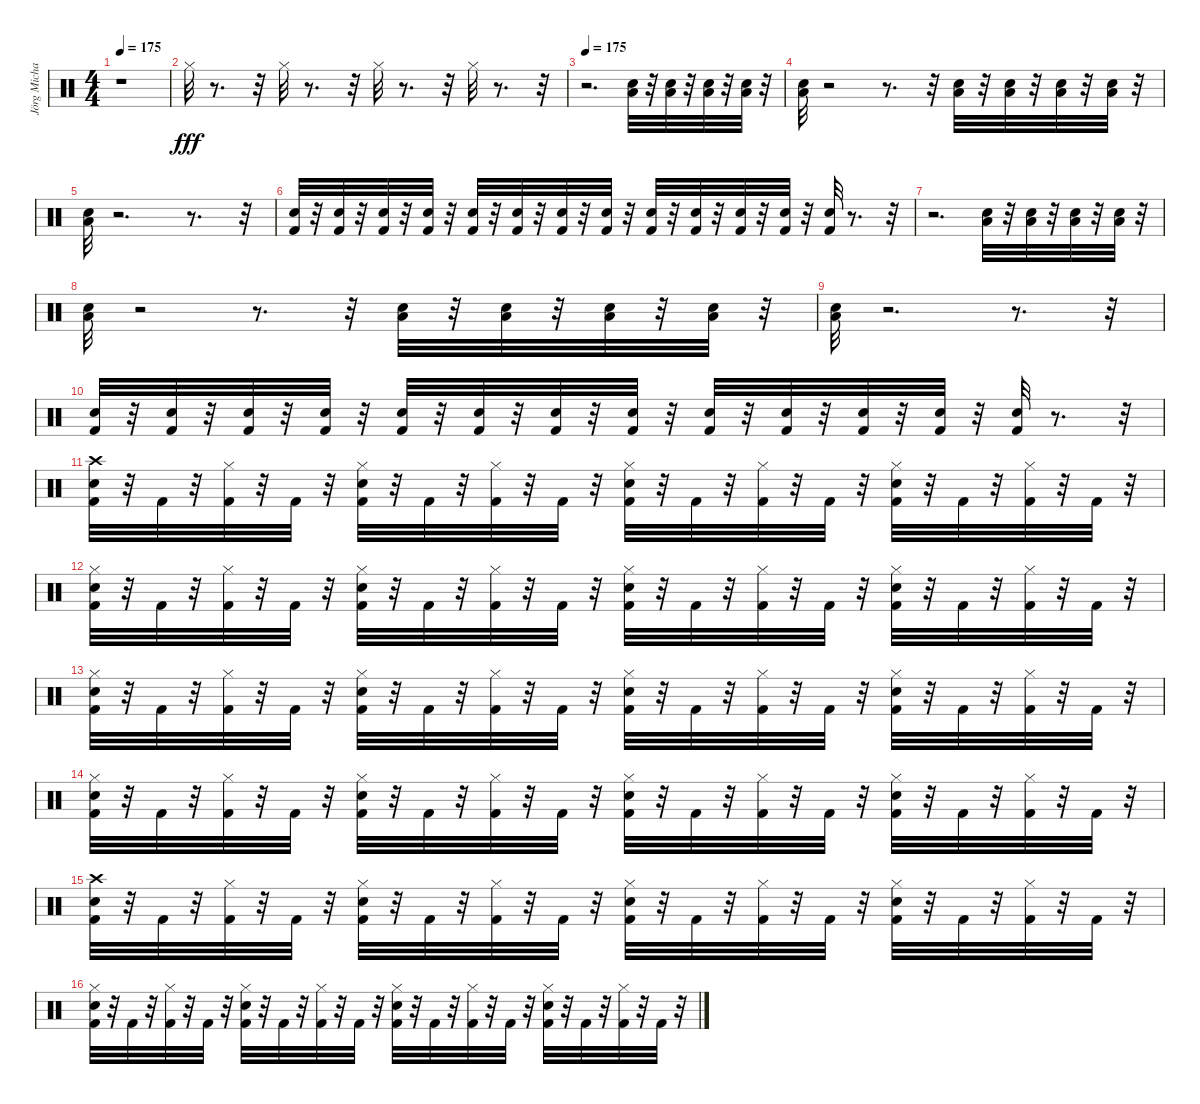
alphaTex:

\track ("Jörg Michael " "Jörg Micha") {instrument percussion}
\staff {score}
\articulation defaults
\ts (4 4)
\tempo 175
\clef neutral
\ks c
r.1{dy fff} |
"Hi-Hat (closed)".32 r.8{d} r.32 "Hi-Hat (closed)".32 r.8{d} r.32 "Hi-Hat (closed)".32 r.8{d} r.32 "Hi-Hat (closed)".32 r.8{d} r.32 |
\tempo 175
r.2{d} ("Low Floor Tom (hit)" "Snare (hit) 2").32 r.32 ("Low Floor Tom (hit)" "Snare (hit) 2").32 r.32 ("Low Floor Tom (hit)" "Snare (hit) 2").32 r.32 ("Low Floor Tom (hit)" "Snare (hit) 2").32 r.32 |
("Low Floor Tom (hit)" "Snare (hit) 2").32 r.2 r.8{d} r.32 ("Low Floor Tom (hit)" "Snare (hit) 2").32 r.32 ("Low Floor Tom (hit)" "Snare (hit) 2").32 r.32 ("Low Floor Tom (hit)" "Snare (hit) 2").32 r.32 ("Low Floor Tom (hit)" "Snare (hit) 2").32 r.32 |
("Low Floor Tom (hit)" "Snare (hit) 2").32 r.2{d} r.8{d} r.32 |
("Kick (hit) 2" "Snare (hit) 2").32 r.32 ("Kick (hit) 2" "Snare (hit) 2").32 r.32 ("Kick (hit) 2" "Snare (hit) 2").32 r.32 ("Kick (hit) 2" "Snare (hit) 2").32 r.32 ("Kick (hit) 2" "Snare (hit) 2").32 r.32 ("Kick (hit) 2" "Snare (hit) 2").32 r.32 ("Kick (hit) 2" "Snare (hit) 2").32 r.32 ("Kick (hit) 2" "Snare (hit) 2").32 r.32 ("Kick (hit) 2" "Electric Snare (hit)").32 r.32 ("Kick (hit) 2" "Electric Snare (hit)").32 r.32 ("Kick (hit) 2" "Electric Snare (hit)").32 r.32 ("Kick (hit) 2" "Electric Snare (hit)").32 r.32 ("Kick (hit) 2" "Electric Snare (hit)").32 r.8{d} r.32 |
r.2{d} ("Low Floor Tom (hit)" "Snare (hit) 2").32 r.32 ("Low Floor Tom (hit)" "Snare (hit) 2").32 r.32 ("Low Floor Tom (hit)" "Snare (hit) 2").32 r.32 ("Low Floor Tom (hit)" "Snare (hit) 2").32 r.32 |
("Low Floor Tom (hit)" "Snare (hit) 2").32 r.2 r.8{d} r.32 ("Low Floor Tom (hit)" "Snare (hit) 2").32 r.32 ("Low Floor Tom (hit)" "Snare (hit) 2").32 r.32 ("Low Floor Tom (hit)" "Snare (hit) 2").32 r.32 ("Low Floor Tom (hit)" "Snare (hit) 2").32 r.32 |
("Low Floor Tom (hit)" "Snare (hit) 2").32 r.2{d} r.8{d} r.32 |
("Kick (hit) 2" "Snare (hit) 2").32 r.32 ("Kick (hit) 2" "Snare (hit) 2").32 r.32 ("Kick (hit) 2" "Snare (hit) 2").32 r.32 ("Kick (hit) 2" "Snare (hit) 2").32 r.32 ("Kick (hit) 2" "Snare (hit) 2").32 r.32 ("Kick (hit) 2" "Snare (hit) 2").32 r.32 ("Kick (hit) 2" "Snare (hit) 2").32 r.32 ("Kick (hit) 2" "Snare (hit) 2").32 r.32 ("Kick (hit) 2" "Electric Snare (hit)").32 r.32 ("Kick (hit) 2" "Electric Snare (hit)").32 r.32 ("Kick (hit) 2" "Electric Snare (hit)").32 r.32 ("Kick (hit) 2" "Electric Snare (hit)").32 r.32 ("Kick (hit) 2" "Electric Snare (hit)").32 r.8{d} r.32 |
("Crash high (hit)" "Snare (hit) 2" "Kick (hit) 2").32 r.32 "Kick (hit) 2".32 r.32 ("Hi-Hat (closed)" "Kick (hit) 2").32 r.32 "Kick (hit) 2".32 r.32 ("Hi-Hat (closed)" "Snare (hit) 2" "Kick (hit) 2").32 r.32 "Kick (hit) 2".32 r.32 ("Hi-Hat (closed)" "Kick (hit) 2").32 r.32 "Kick (hit) 2".32 r.32 ("Hi-Hat (closed)" "Snare (hit) 2" "Kick (hit) 2").32 r.32 "Kick (hit) 2".32 r.32 ("Hi-Hat (closed)" "Kick (hit) 2").32 r.32 "Kick (hit) 2".32 r.32 ("Hi-Hat (closed)" "Snare (hit) 2" "Kick (hit) 2").32 r.32 "Kick (hit) 2".32 r.32 ("Hi-Hat (closed)" "Kick (hit) 2").32 r.32 "Kick (hit) 2".32 r.32 |
("Hi-Hat (closed)" "Snare (hit) 2" "Kick (hit) 2").32 r.32 "Kick (hit) 2".32 r.32 ("Hi-Hat (closed)" "Kick (hit) 2").32 r.32 "Kick (hit) 2".32 r.32 ("Hi-Hat (closed)" "Snare (hit) 2" "Kick (hit) 2").32 r.32 "Kick (hit) 2".32 r.32 ("Hi-Hat (closed)" "Kick (hit) 2").32 r.32 "Kick (hit) 2".32 r.32 ("Hi-Hat (closed)" "Snare (hit) 2" "Kick (hit) 2").32 r.32 "Kick (hit) 2".32 r.32 ("Hi-Hat (closed)" "Kick (hit) 2").32 r.32 "Kick (hit) 2".32 r.32 ("Hi-Hat (closed)" "Snare (hit) 2" "Kick (hit) 2").32 r.32 "Kick (hit) 2".32 r.32 ("Hi-Hat (closed)" "Kick (hit) 2").32 r.32 "Kick (hit) 2".32 r.32 |
("Hi-Hat (closed)" "Snare (hit) 2" "Kick (hit) 2").32 r.32 "Kick (hit) 2".32 r.32 ("Hi-Hat (closed)" "Kick (hit) 2").32 r.32 "Kick (hit) 2".32 r.32 ("Hi-Hat (closed)" "Snare (hit) 2" "Kick (hit) 2").32 r.32 "Kick (hit) 2".32 r.32 ("Hi-Hat (closed)" "Kick (hit) 2").32 r.32 "Kick (hit) 2".32 r.32 ("Hi-Hat (closed)" "Snare (hit) 2" "Kick (hit) 2").32 r.32 "Kick (hit) 2".32 r.32 ("Hi-Hat (closed)" "Kick (hit) 2").32 r.32 "Kick (hit) 2".32 r.32 ("Hi-Hat (closed)" "Snare (hit) 2" "Kick (hit) 2").32 r.32 "Kick (hit) 2".32 r.32 ("Hi-Hat (closed)" "Kick (hit) 2").32 r.32 "Kick (hit) 2".32 r.32 |
("Hi-Hat (closed)" "Snare (hit) 2" "Kick (hit) 2").32 r.32 "Kick (hit) 2".32 r.32 ("Hi-Hat (closed)" "Kick (hit) 2").32 r.32 "Kick (hit) 2".32 r.32 ("Hi-Hat (closed)" "Snare (hit) 2" "Kick (hit) 2").32 r.32 "Kick (hit) 2".32 r.32 ("Hi-Hat (closed)" "Kick (hit) 2").32 r.32 "Kick (hit) 2".32 r.32 ("Hi-Hat (closed)" "Snare (hit) 2" "Kick (hit) 2").32 r.32 "Kick (hit) 2".32 r.32 ("Hi-Hat (closed)" "Kick (hit) 2").32 r.32 "Kick (hit) 2".32 r.32 ("Hi-Hat (closed)" "Snare (hit) 2" "Kick (hit) 2").32 r.32 "Kick (hit) 2".32 r.32 ("Hi-Hat (closed)" "Kick (hit) 2").32 r.32 "Kick (hit) 2".32 r.32 |
("Crash high (hit)" "Snare (hit) 2" "Kick (hit) 2").32 r.32 "Kick (hit) 2".32 r.32 ("Hi-Hat (closed)" "Kick (hit) 2").32 r.32 "Kick (hit) 2".32 r.32 ("Hi-Hat (closed)" "Snare (hit) 2" "Kick (hit) 2").32 r.32 "Kick (hit) 2".32 r.32 ("Hi-Hat (closed)" "Kick (hit) 2").32 r.32 "Kick (hit) 2".32 r.32 ("Hi-Hat (closed)" "Snare (hit) 2" "Kick (hit) 2").32 r.32 "Kick (hit) 2".32 r.32 ("Hi-Hat (closed)" "Kick (hit) 2").32 r.32 "Kick (hit) 2".32 r.32 ("Hi-Hat (closed)" "Snare (hit) 2" "Kick (hit) 2").32 r.32 "Kick (hit) 2".32 r.32 ("Hi-Hat (closed)" "Kick (hit) 2").32 r.32 "Kick (hit) 2".32 r.32 |
("Hi-Hat (closed)" "Snare (hit) 2" "Kick (hit) 2").32 r.32 "Kick (hit) 2".32 r.32 ("Hi-Hat (closed)" "Kick (hit) 2").32 r.32 "Kick (hit) 2".32 r.32 ("Hi-Hat (closed)" "Snare (hit) 2" "Kick (hit) 2").32 r.32 "Kick (hit) 2".32 r.32 ("Hi-Hat (closed)" "Kick (hit) 2").32 r.32 "Kick (hit) 2".32 r.32 ("Hi-Hat (closed)" "Snare (hit) 2" "Kick (hit) 2").32 r.32 "Kick (hit) 2".32 r.32 ("Hi-Hat (closed)" "Kick (hit) 2").32 r.32 "Kick (hit) 2".32 r.32 ("Hi-Hat (closed)" "Snare (hit) 2" "Kick (hit) 2").32 r.32 "Kick (hit) 2".32 r.32 ("Hi-Hat (closed)" "Kick (hit) 2").32 r.32 "Kick (hit) 2".32 r.32
